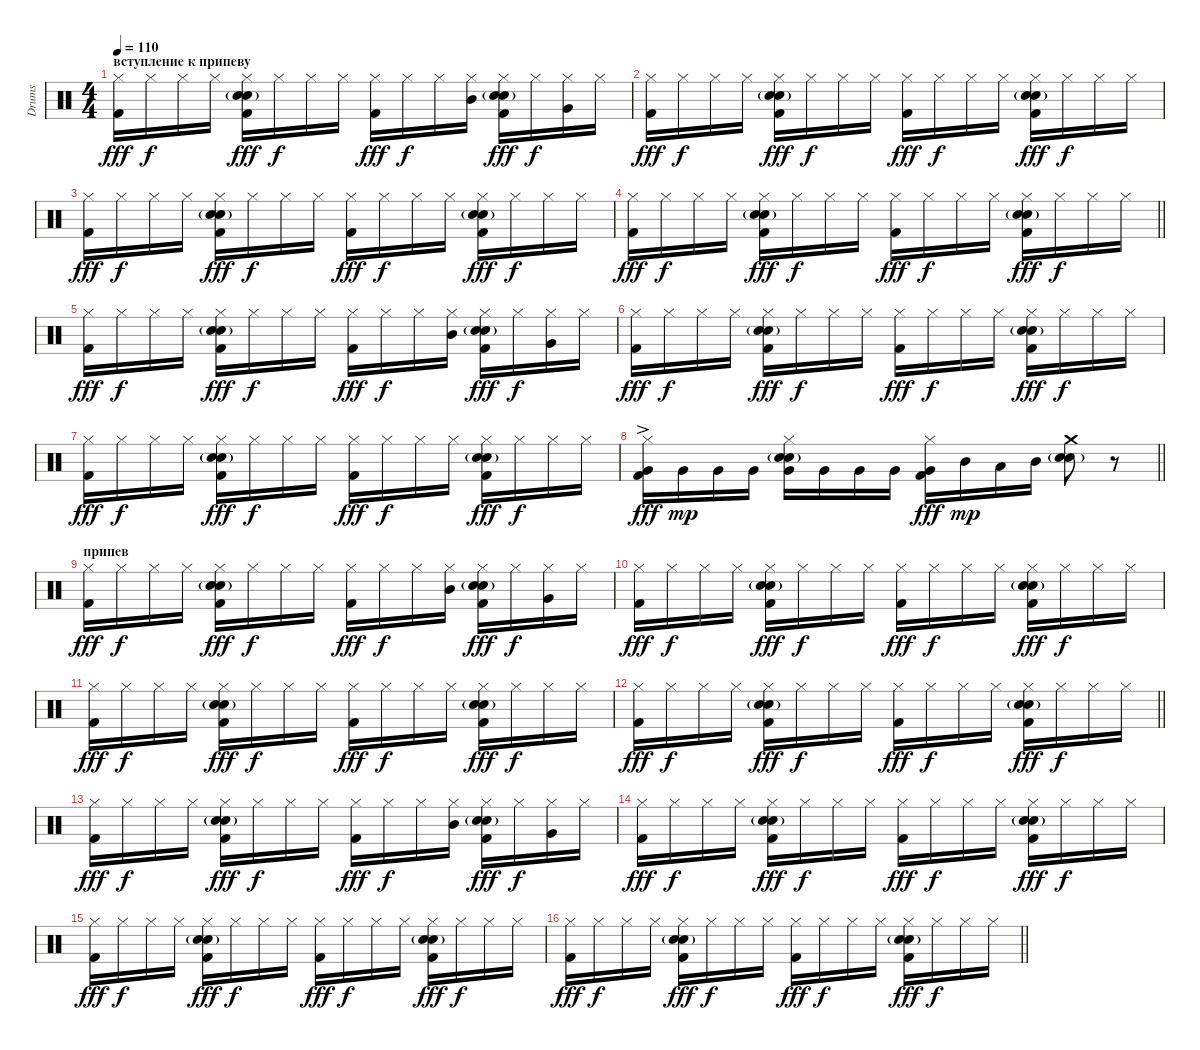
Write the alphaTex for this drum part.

\track ("Drums" "Drums") {instrument percussion}
\staff {score}
\articulation defaults
\ts (4 4)
\section ("" "вступление к припеву")
\tempo 110
\clef neutral
\ks c
("Hi-Hat (closed)" "Kick (hit) 2").16{dy fff} "Hi-Hat (closed)".16{dy f} "Hi-Hat (closed)".16 "Hi-Hat (closed)".16 ("Hi-Hat (closed)" "Electric Snare (hit)"{g} "Hand Clap (hit)" "Kick (hit) 2").16{dy fff} "Hi-Hat (closed)".16{dy f} "Hi-Hat (closed)".16 "Hi-Hat (closed)".16 ("Hi-Hat (closed)" "Kick (hit) 2").16{dy fff} "Hi-Hat (closed)".16{dy f} "Hi-Hat (closed)".16 ("Hi-Hat (closed)" "Mid Tom (hit)").16 ("Hi-Hat (closed)" "Electric Snare (hit)"{g} "Hand Clap (hit)" "Kick (hit) 2").16{dy fff} "Hi-Hat (closed)".16{dy f} ("Hi-Hat (closed)" "Very Low Tom (hit)").16 "Hi-Hat (closed)".16 |
("Hi-Hat (closed)" "Kick (hit) 2").16{dy fff} "Hi-Hat (closed)".16{dy f} "Hi-Hat (closed)".16 "Hi-Hat (closed)".16 ("Hi-Hat (closed)" "Electric Snare (hit)"{g} "Hand Clap (hit)" "Kick (hit) 2").16{dy fff} "Hi-Hat (closed)".16{dy f} "Hi-Hat (closed)".16 "Hi-Hat (closed)".16 ("Hi-Hat (closed)" "Kick (hit) 2").16{dy fff} "Hi-Hat (closed)".16{dy f} "Hi-Hat (closed)".16 "Hi-Hat (closed)".16 ("Hi-Hat (closed)" "Electric Snare (hit)"{g} "Hand Clap (hit)" "Kick (hit) 2").16{dy fff} "Hi-Hat (closed)".16{dy f} "Hi-Hat (closed)".16 "Hi-Hat (closed)".16 |
("Hi-Hat (closed)" "Kick (hit) 2").16{dy fff} "Hi-Hat (closed)".16{dy f} "Hi-Hat (closed)".16 "Hi-Hat (closed)".16 ("Hi-Hat (closed)" "Electric Snare (hit)"{g} "Hand Clap (hit)" "Kick (hit) 2").16{dy fff} "Hi-Hat (closed)".16{dy f} "Hi-Hat (closed)".16 "Hi-Hat (closed)".16 ("Hi-Hat (closed)" "Kick (hit) 2").16{dy fff} "Hi-Hat (closed)".16{dy f} "Hi-Hat (closed)".16 "Hi-Hat (closed)".16 ("Hi-Hat (closed)" "Electric Snare (hit)"{g} "Hand Clap (hit)" "Kick (hit) 2").16{dy fff} "Hi-Hat (closed)".16{dy f} "Hi-Hat (closed)".16 "Hi-Hat (closed)".16 |
\barLineRight lightlight
("Hi-Hat (closed)" "Kick (hit) 2").16{dy fff} "Hi-Hat (closed)".16{dy f} "Hi-Hat (closed)".16 "Hi-Hat (closed)".16 ("Hi-Hat (closed)" "Electric Snare (hit)"{g} "Hand Clap (hit)" "Kick (hit) 2").16{dy fff} "Hi-Hat (closed)".16{dy f} "Hi-Hat (closed)".16 "Hi-Hat (closed)".16 ("Hi-Hat (closed)" "Kick (hit) 2").16{dy fff} "Hi-Hat (closed)".16{dy f} "Hi-Hat (closed)".16 "Hi-Hat (closed)".16 ("Hi-Hat (closed)" "Electric Snare (hit)"{g} "Hand Clap (hit)" "Kick (hit) 2").16{dy fff} "Hi-Hat (closed)".16{dy f} "Hi-Hat (closed)".16 "Hi-Hat (closed)".16 |
("Hi-Hat (closed)" "Kick (hit) 2").16{dy fff} "Hi-Hat (closed)".16{dy f} "Hi-Hat (closed)".16 "Hi-Hat (closed)".16 ("Hi-Hat (closed)" "Electric Snare (hit)"{g} "Hand Clap (hit)" "Kick (hit) 2").16{dy fff} "Hi-Hat (closed)".16{dy f} "Hi-Hat (closed)".16 "Hi-Hat (closed)".16 ("Hi-Hat (closed)" "Kick (hit) 2").16{dy fff} "Hi-Hat (closed)".16{dy f} "Hi-Hat (closed)".16 ("Hi-Hat (closed)" "Mid Tom (hit)").16 ("Hi-Hat (closed)" "Electric Snare (hit)"{g} "Hand Clap (hit)" "Kick (hit) 2").16{dy fff} "Hi-Hat (closed)".16{dy f} ("Hi-Hat (closed)" "Very Low Tom (hit)").16 "Hi-Hat (closed)".16 |
("Hi-Hat (closed)" "Kick (hit) 2").16{dy fff} "Hi-Hat (closed)".16{dy f} "Hi-Hat (closed)".16 "Hi-Hat (closed)".16 ("Hi-Hat (closed)" "Electric Snare (hit)"{g} "Hand Clap (hit)" "Kick (hit) 2").16{dy fff} "Hi-Hat (closed)".16{dy f} "Hi-Hat (closed)".16 "Hi-Hat (closed)".16 ("Hi-Hat (closed)" "Kick (hit) 2").16{dy fff} "Hi-Hat (closed)".16{dy f} "Hi-Hat (closed)".16 "Hi-Hat (closed)".16 ("Hi-Hat (closed)" "Electric Snare (hit)"{g} "Hand Clap (hit)" "Kick (hit) 2").16{dy fff} "Hi-Hat (closed)".16{dy f} "Hi-Hat (closed)".16 "Hi-Hat (closed)".16 |
("Hi-Hat (closed)" "Kick (hit) 2").16{dy fff} "Hi-Hat (closed)".16{dy f} "Hi-Hat (closed)".16 "Hi-Hat (closed)".16 ("Hi-Hat (closed)" "Electric Snare (hit)"{g} "Hand Clap (hit)" "Kick (hit) 2").16{dy fff} "Hi-Hat (closed)".16{dy f} "Hi-Hat (closed)".16 "Hi-Hat (closed)".16 ("Hi-Hat (closed)" "Kick (hit) 2").16{dy fff} "Hi-Hat (closed)".16{dy f} "Hi-Hat (closed)".16 "Hi-Hat (closed)".16 ("Hi-Hat (closed)" "Electric Snare (hit)"{g} "Hand Clap (hit)" "Kick (hit) 2").16{dy fff} "Hi-Hat (closed)".16{dy f} "Hi-Hat (closed)".16 "Hi-Hat (closed)".16 |
\barLineRight lightlight
("Hi-Hat (closed)" "Very Low Tom (hit)"{ac} "Kick (hit) 2").16{dy fff} "Very Low Tom (hit)".16{dy mp} "Very Low Tom (hit)".16 "Very Low Tom (hit)".16 ("Hi-Hat (closed)" "Very Low Tom (hit)" "Electric Snare (hit)"{g} "Hand Clap (hit)").16 "Very Low Tom (hit)".16 "Very Low Tom (hit)".16 "Very Low Tom (hit)".16 ("Hi-Hat (closed)" "Very Low Tom (hit)" "Kick (hit) 2").16{dy fff} "Mid Tom (hit)".16{dy mp} "Low Tom (hit)".16 "Mid Tom (hit)".16 ("Crash medium (hit)" "Electric Snare (hit)"{g} "Hand Clap (hit)").8 r.8 |
\section ("" "припев")
("Hi-Hat (closed)" "Kick (hit) 2").16{dy fff} "Hi-Hat (closed)".16{dy f} "Hi-Hat (closed)".16 "Hi-Hat (closed)".16 ("Hi-Hat (closed)" "Electric Snare (hit)"{g} "Hand Clap (hit)" "Kick (hit) 2").16{dy fff} "Hi-Hat (closed)".16{dy f} "Hi-Hat (closed)".16 "Hi-Hat (closed)".16 ("Hi-Hat (closed)" "Kick (hit) 2").16{dy fff} "Hi-Hat (closed)".16{dy f} "Hi-Hat (closed)".16 ("Hi-Hat (closed)" "Mid Tom (hit)").16 ("Hi-Hat (closed)" "Electric Snare (hit)"{g} "Hand Clap (hit)" "Kick (hit) 2").16{dy fff} "Hi-Hat (closed)".16{dy f} ("Hi-Hat (closed)" "Very Low Tom (hit)").16 "Hi-Hat (closed)".16 |
("Hi-Hat (closed)" "Kick (hit) 2").16{dy fff} "Hi-Hat (closed)".16{dy f} "Hi-Hat (closed)".16 "Hi-Hat (closed)".16 ("Hi-Hat (closed)" "Electric Snare (hit)"{g} "Hand Clap (hit)" "Kick (hit) 2").16{dy fff} "Hi-Hat (closed)".16{dy f} "Hi-Hat (closed)".16 "Hi-Hat (closed)".16 ("Hi-Hat (closed)" "Kick (hit) 2").16{dy fff} "Hi-Hat (closed)".16{dy f} "Hi-Hat (closed)".16 "Hi-Hat (closed)".16 ("Hi-Hat (closed)" "Electric Snare (hit)"{g} "Hand Clap (hit)" "Kick (hit) 2").16{dy fff} "Hi-Hat (closed)".16{dy f} "Hi-Hat (closed)".16 "Hi-Hat (closed)".16 |
("Hi-Hat (closed)" "Kick (hit) 2").16{dy fff} "Hi-Hat (closed)".16{dy f} "Hi-Hat (closed)".16 "Hi-Hat (closed)".16 ("Hi-Hat (closed)" "Electric Snare (hit)"{g} "Hand Clap (hit)" "Kick (hit) 2").16{dy fff} "Hi-Hat (closed)".16{dy f} "Hi-Hat (closed)".16 "Hi-Hat (closed)".16 ("Hi-Hat (closed)" "Kick (hit) 2").16{dy fff} "Hi-Hat (closed)".16{dy f} "Hi-Hat (closed)".16 "Hi-Hat (closed)".16 ("Hi-Hat (closed)" "Electric Snare (hit)"{g} "Hand Clap (hit)" "Kick (hit) 2").16{dy fff} "Hi-Hat (closed)".16{dy f} "Hi-Hat (closed)".16 "Hi-Hat (closed)".16 |
\barLineRight lightlight
("Hi-Hat (closed)" "Kick (hit) 2").16{dy fff} "Hi-Hat (closed)".16{dy f} "Hi-Hat (closed)".16 "Hi-Hat (closed)".16 ("Hi-Hat (closed)" "Electric Snare (hit)"{g} "Hand Clap (hit)" "Kick (hit) 2").16{dy fff} "Hi-Hat (closed)".16{dy f} "Hi-Hat (closed)".16 "Hi-Hat (closed)".16 ("Hi-Hat (closed)" "Kick (hit) 2").16{dy fff} "Hi-Hat (closed)".16{dy f} "Hi-Hat (closed)".16 "Hi-Hat (closed)".16 ("Hi-Hat (closed)" "Electric Snare (hit)"{g} "Hand Clap (hit)" "Kick (hit) 2").16{dy fff} "Hi-Hat (closed)".16{dy f} "Hi-Hat (closed)".16 "Hi-Hat (closed)".16 |
("Hi-Hat (closed)" "Kick (hit) 2").16{dy fff} "Hi-Hat (closed)".16{dy f} "Hi-Hat (closed)".16 "Hi-Hat (closed)".16 ("Hi-Hat (closed)" "Electric Snare (hit)"{g} "Hand Clap (hit)" "Kick (hit) 2").16{dy fff} "Hi-Hat (closed)".16{dy f} "Hi-Hat (closed)".16 "Hi-Hat (closed)".16 ("Hi-Hat (closed)" "Kick (hit) 2").16{dy fff} "Hi-Hat (closed)".16{dy f} "Hi-Hat (closed)".16 ("Hi-Hat (closed)" "Mid Tom (hit)").16 ("Hi-Hat (closed)" "Electric Snare (hit)"{g} "Hand Clap (hit)" "Kick (hit) 2").16{dy fff} "Hi-Hat (closed)".16{dy f} ("Hi-Hat (closed)" "Very Low Tom (hit)").16 "Hi-Hat (closed)".16 |
("Hi-Hat (closed)" "Kick (hit) 2").16{dy fff} "Hi-Hat (closed)".16{dy f} "Hi-Hat (closed)".16 "Hi-Hat (closed)".16 ("Hi-Hat (closed)" "Electric Snare (hit)"{g} "Hand Clap (hit)" "Kick (hit) 2").16{dy fff} "Hi-Hat (closed)".16{dy f} "Hi-Hat (closed)".16 "Hi-Hat (closed)".16 ("Hi-Hat (closed)" "Kick (hit) 2").16{dy fff} "Hi-Hat (closed)".16{dy f} "Hi-Hat (closed)".16 "Hi-Hat (closed)".16 ("Hi-Hat (closed)" "Electric Snare (hit)"{g} "Hand Clap (hit)" "Kick (hit) 2").16{dy fff} "Hi-Hat (closed)".16{dy f} "Hi-Hat (closed)".16 "Hi-Hat (closed)".16 |
("Hi-Hat (closed)" "Kick (hit) 2").16{dy fff} "Hi-Hat (closed)".16{dy f} "Hi-Hat (closed)".16 "Hi-Hat (closed)".16 ("Hi-Hat (closed)" "Electric Snare (hit)"{g} "Hand Clap (hit)" "Kick (hit) 2").16{dy fff} "Hi-Hat (closed)".16{dy f} "Hi-Hat (closed)".16 "Hi-Hat (closed)".16 ("Hi-Hat (closed)" "Kick (hit) 2").16{dy fff} "Hi-Hat (closed)".16{dy f} "Hi-Hat (closed)".16 "Hi-Hat (closed)".16 ("Hi-Hat (closed)" "Electric Snare (hit)"{g} "Hand Clap (hit)" "Kick (hit) 2").16{dy fff} "Hi-Hat (closed)".16{dy f} "Hi-Hat (closed)".16 "Hi-Hat (closed)".16 |
\barLineRight lightlight
("Hi-Hat (closed)" "Kick (hit) 2").16{dy fff} "Hi-Hat (closed)".16{dy f} "Hi-Hat (closed)".16 "Hi-Hat (closed)".16 ("Hi-Hat (closed)" "Electric Snare (hit)"{g} "Hand Clap (hit)" "Kick (hit) 2").16{dy fff} "Hi-Hat (closed)".16{dy f} "Hi-Hat (closed)".16 "Hi-Hat (closed)".16 ("Hi-Hat (closed)" "Kick (hit) 2").16{dy fff} "Hi-Hat (closed)".16{dy f} "Hi-Hat (closed)".16 "Hi-Hat (closed)".16 ("Hi-Hat (closed)" "Electric Snare (hit)"{g} "Hand Clap (hit)" "Kick (hit) 2").16{dy fff} "Hi-Hat (closed)".16{dy f} "Hi-Hat (closed)".16 "Hi-Hat (closed)".16
